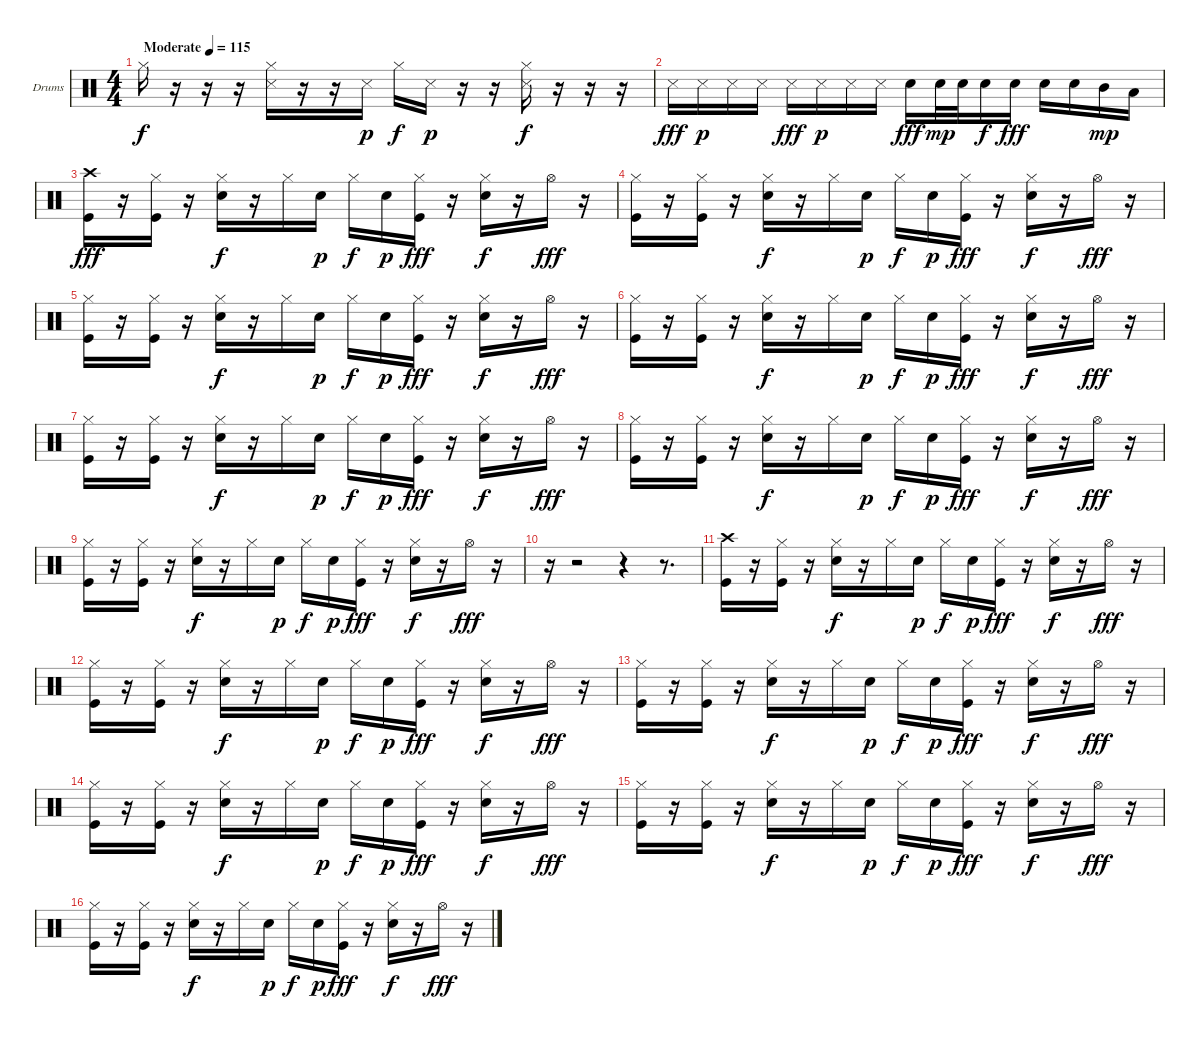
\bracketExtendMode groupsimilarinstruments
\firstSystemTrackNameOrientation horizontal
\otherSystemsTrackNameOrientation horizontal
\track ("Drumkit" "Drums") {instrument percussion}
\staff {score}
\articulation defaults
\ts (4 4)
\beaming (8 2 2 2 2)
\tempo (115 "Moderate")
\clef neutral
\ks c "Hi-Hat (closed)".16{dy f}
r.16 r.16 r.16 ("Snare (side stick) 3" "Hi-Hat (closed)").16 r.16 r.16 "Snare (side stick) 3".16{dy p} "Hi-Hat (closed)".16{dy f} "Snare (side stick) 3".16{dy p} r.16 r.16 ("Snare (side stick) 3" "Hi-Hat (closed)").16{dy f} r.16 r.16 r.16 |
"Snare (side stick) 3".16{dy fff} "Snare (side stick) 3".16{dy p} "Snare (side stick) 3".16 "Snare (side stick) 3".16 "Snare (side stick) 3".16{dy fff} "Snare (side stick) 3".16{dy p} "Snare (side stick) 3".16 "Snare (side stick) 3".16 "Snare (hit) 2".16{dy fff} "Snare (hit) 2".32{dy mp} "Snare (hit) 2".32 "Snare (hit) 2".16{dy f} "Snare (hit) 2".16{dy fff} "Snare (hit) 2".16 "Snare (hit) 2".16 "Mid Tom (hit)".16{dy mp} "Low Tom (hit)".16 |
("Kick (hit)" "Crash high (hit)").16{dy fff} r.16 ("Kick (hit)" "Hi-Hat (closed)").16 r.16 ("Snare (hit) 2" "Hi-Hat (closed)").16{dy f} r.16 "Hi-Hat (closed)".16 "Snare (hit) 2".16{dy p} "Hi-Hat (closed)".16{dy f} "Snare (hit) 2".16{dy p} ("Kick (hit)" "Hi-Hat (closed)").16{dy fff} r.16 ("Snare (hit) 2" "Hi-Hat (closed)").16{dy f} r.16 "Hi-Hat (open)".16{dy fff} r.16 |
("Kick (hit)" "Hi-Hat (closed)").16 r.16 ("Kick (hit)" "Hi-Hat (closed)").16 r.16 ("Snare (hit) 2" "Hi-Hat (closed)").16{dy f} r.16 "Hi-Hat (closed)".16 "Snare (hit) 2".16{dy p} "Hi-Hat (closed)".16{dy f} "Snare (hit) 2".16{dy p} ("Kick (hit)" "Hi-Hat (closed)").16{dy fff} r.16 ("Snare (hit) 2" "Hi-Hat (closed)").16{dy f} r.16 "Hi-Hat (open)".16{dy fff} r.16 |
("Kick (hit)" "Hi-Hat (closed)").16 r.16 ("Kick (hit)" "Hi-Hat (closed)").16 r.16 ("Snare (hit) 2" "Hi-Hat (closed)").16{dy f} r.16 "Hi-Hat (closed)".16 "Snare (hit) 2".16{dy p} "Hi-Hat (closed)".16{dy f} "Snare (hit) 2".16{dy p} ("Kick (hit)" "Hi-Hat (closed)").16{dy fff} r.16 ("Snare (hit) 2" "Hi-Hat (closed)").16{dy f} r.16 "Hi-Hat (open)".16{dy fff} r.16 |
("Kick (hit)" "Hi-Hat (closed)").16 r.16 ("Kick (hit)" "Hi-Hat (closed)").16 r.16 ("Snare (hit) 2" "Hi-Hat (closed)").16{dy f} r.16 "Hi-Hat (closed)".16 "Snare (hit) 2".16{dy p} "Hi-Hat (closed)".16{dy f} "Snare (hit) 2".16{dy p} ("Kick (hit)" "Hi-Hat (closed)").16{dy fff} r.16 ("Snare (hit) 2" "Hi-Hat (closed)").16{dy f} r.16 "Hi-Hat (open)".16{dy fff} r.16 |
("Kick (hit)" "Hi-Hat (closed)").16 r.16 ("Kick (hit)" "Hi-Hat (closed)").16 r.16 ("Snare (hit) 2" "Hi-Hat (closed)").16{dy f} r.16 "Hi-Hat (closed)".16 "Snare (hit) 2".16{dy p} "Hi-Hat (closed)".16{dy f} "Snare (hit) 2".16{dy p} ("Kick (hit)" "Hi-Hat (closed)").16{dy fff} r.16 ("Snare (hit) 2" "Hi-Hat (closed)").16{dy f} r.16 "Hi-Hat (open)".16{dy fff} r.16 |
("Kick (hit)" "Hi-Hat (closed)").16 r.16 ("Kick (hit)" "Hi-Hat (closed)").16 r.16 ("Snare (hit) 2" "Hi-Hat (closed)").16{dy f} r.16 "Hi-Hat (closed)".16 "Snare (hit) 2".16{dy p} "Hi-Hat (closed)".16{dy f} "Snare (hit) 2".16{dy p} ("Kick (hit)" "Hi-Hat (closed)").16{dy fff} r.16 ("Snare (hit) 2" "Hi-Hat (closed)").16{dy f} r.16 "Hi-Hat (open)".16{dy fff} r.16 |
("Kick (hit)" "Hi-Hat (closed)").16 r.16 ("Kick (hit)" "Hi-Hat (closed)").16 r.16 ("Snare (hit) 2" "Hi-Hat (closed)").16{dy f} r.16 "Hi-Hat (closed)".16 "Snare (hit) 2".16{dy p} "Hi-Hat (closed)".16{dy f} "Snare (hit) 2".16{dy p} ("Kick (hit)" "Hi-Hat (closed)").16{dy fff} r.16 ("Snare (hit) 2" "Hi-Hat (closed)").16{dy f} r.16 "Hi-Hat (open)".16{dy fff} r.16 |
r.16 r.2 r.4 r.8{d} |
("Kick (hit)" "Crash high (hit)").16 r.16 ("Kick (hit)" "Hi-Hat (closed)").16 r.16 ("Snare (hit) 2" "Hi-Hat (closed)").16{dy f} r.16 "Hi-Hat (closed)".16 "Snare (hit) 2".16{dy p} "Hi-Hat (closed)".16{dy f} "Snare (hit) 2".16{dy p} ("Kick (hit)" "Hi-Hat (closed)").16{dy fff} r.16 ("Snare (hit) 2" "Hi-Hat (closed)").16{dy f} r.16 "Hi-Hat (open)".16{dy fff} r.16 |
("Kick (hit)" "Hi-Hat (closed)").16 r.16 ("Kick (hit)" "Hi-Hat (closed)").16 r.16 ("Snare (hit) 2" "Hi-Hat (closed)").16{dy f} r.16 "Hi-Hat (closed)".16 "Snare (hit) 2".16{dy p} "Hi-Hat (closed)".16{dy f} "Snare (hit) 2".16{dy p} ("Kick (hit)" "Hi-Hat (closed)").16{dy fff} r.16 ("Snare (hit) 2" "Hi-Hat (closed)").16{dy f} r.16 "Hi-Hat (open)".16{dy fff} r.16 |
("Kick (hit)" "Hi-Hat (closed)").16 r.16 ("Kick (hit)" "Hi-Hat (closed)").16 r.16 ("Snare (hit) 2" "Hi-Hat (closed)").16{dy f} r.16 "Hi-Hat (closed)".16 "Snare (hit) 2".16{dy p} "Hi-Hat (closed)".16{dy f} "Snare (hit) 2".16{dy p} ("Kick (hit)" "Hi-Hat (closed)").16{dy fff} r.16 ("Snare (hit) 2" "Hi-Hat (closed)").16{dy f} r.16 "Hi-Hat (open)".16{dy fff} r.16 |
("Kick (hit)" "Hi-Hat (closed)").16 r.16 ("Kick (hit)" "Hi-Hat (closed)").16 r.16 ("Snare (hit) 2" "Hi-Hat (closed)").16{dy f} r.16 "Hi-Hat (closed)".16 "Snare (hit) 2".16{dy p} "Hi-Hat (closed)".16{dy f} "Snare (hit) 2".16{dy p} ("Kick (hit)" "Hi-Hat (closed)").16{dy fff} r.16 ("Snare (hit) 2" "Hi-Hat (closed)").16{dy f} r.16 "Hi-Hat (open)".16{dy fff} r.16 |
("Kick (hit)" "Hi-Hat (closed)").16 r.16 ("Kick (hit)" "Hi-Hat (closed)").16 r.16 ("Snare (hit) 2" "Hi-Hat (closed)").16{dy f} r.16 "Hi-Hat (closed)".16 "Snare (hit) 2".16{dy p} "Hi-Hat (closed)".16{dy f} "Snare (hit) 2".16{dy p} ("Kick (hit)" "Hi-Hat (closed)").16{dy fff} r.16 ("Snare (hit) 2" "Hi-Hat (closed)").16{dy f} r.16 "Hi-Hat (open)".16{dy fff} r.16 |
("Kick (hit)" "Hi-Hat (closed)").16 r.16 ("Kick (hit)" "Hi-Hat (closed)").16 r.16 ("Snare (hit) 2" "Hi-Hat (closed)").16{dy f} r.16 "Hi-Hat (closed)".16 "Snare (hit) 2".16{dy p} "Hi-Hat (closed)".16{dy f} "Snare (hit) 2".16{dy p} ("Kick (hit)" "Hi-Hat (closed)").16{dy fff} r.16 ("Snare (hit) 2" "Hi-Hat (closed)").16{dy f} r.16 "Hi-Hat (open)".16{dy fff} r.16
